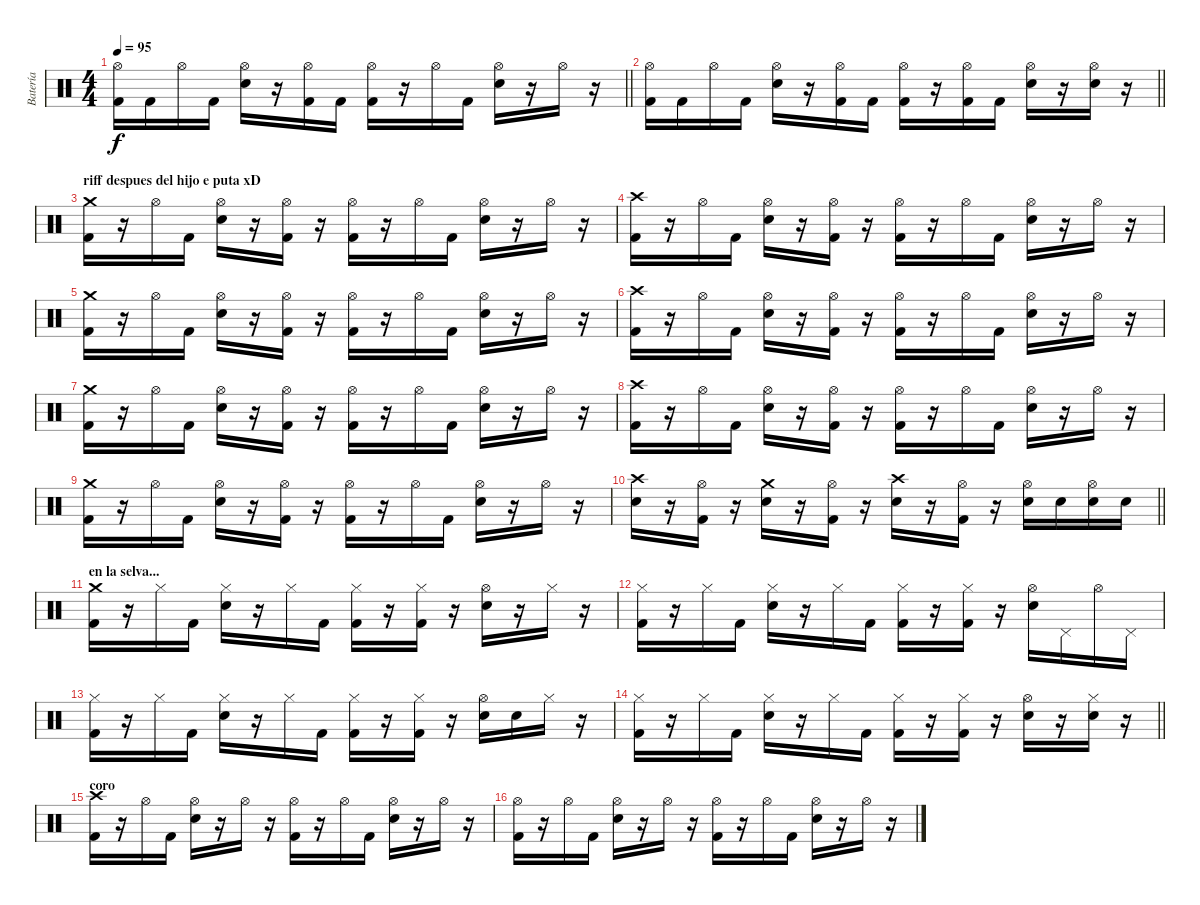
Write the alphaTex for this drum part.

\track ("Batería" "Batería") {instrument percussion}
\staff {score}
\articulation defaults
\ts (4 4)
\tempo 95
\clef neutral
\barLineRight lightlight
\ks c
("Hi-Hat (open)" "Kick (hit) 2").16{dy f} "Kick (hit) 2".16 "Hi-Hat (open)".16 "Kick (hit) 2".16 ("Hi-Hat (open)" "Snare (hit) 2").16 r.16 ("Hi-Hat (open)" "Kick (hit) 2").16 "Kick (hit) 2".16 ("Hi-Hat (open)" "Kick (hit) 2").16 r.16 "Hi-Hat (open)".16 "Kick (hit) 2".16 ("Hi-Hat (open)" "Snare (hit) 2").16 r.16 "Hi-Hat (open)".16 r.16 |
\barLineRight lightlight
("Hi-Hat (open)" "Kick (hit) 2").16 "Kick (hit) 2".16 "Hi-Hat (open)".16 "Kick (hit) 2".16 ("Hi-Hat (open)" "Snare (hit) 2").16 r.16 ("Hi-Hat (open)" "Kick (hit) 2").16 "Kick (hit) 2".16 ("Hi-Hat (open)" "Kick (hit) 2").16 r.16 ("Hi-Hat (open)" "Kick (hit) 2").16 "Kick (hit) 2".16 ("Hi-Hat (open)" "Snare (hit) 2").16 r.16 ("Hi-Hat (open)" "Snare (hit) 2").16 r.16 |
\section ("" "riff despues del hijo e puta xD")
("Crash medium (hit)" "Kick (hit) 2").16 r.16 "Hi-Hat (open)".16 "Kick (hit) 2".16 ("Hi-Hat (open)" "Snare (hit) 2").16 r.16 ("Hi-Hat (open)" "Kick (hit) 2").16 r.16 ("Hi-Hat (open)" "Kick (hit) 2").16 r.16 "Hi-Hat (open)".16 "Kick (hit) 2".16 ("Hi-Hat (open)" "Snare (hit) 2").16 r.16 "Hi-Hat (open)".16 r.16 |
("Crash high (hit)" "Kick (hit) 2").16 r.16 "Hi-Hat (open)".16 "Kick (hit) 2".16 ("Hi-Hat (open)" "Snare (hit) 2").16 r.16 ("Hi-Hat (open)" "Kick (hit) 2").16 r.16 ("Hi-Hat (open)" "Kick (hit) 2").16 r.16 "Hi-Hat (open)".16 "Kick (hit) 2".16 ("Hi-Hat (open)" "Snare (hit) 2").16 r.16 "Hi-Hat (open)".16 r.16 |
("Crash medium (hit)" "Kick (hit) 2").16 r.16 "Hi-Hat (open)".16 "Kick (hit) 2".16 ("Hi-Hat (open)" "Snare (hit) 2").16 r.16 ("Hi-Hat (open)" "Kick (hit) 2").16 r.16 ("Hi-Hat (open)" "Kick (hit) 2").16 r.16 "Hi-Hat (open)".16 "Kick (hit) 2".16 ("Hi-Hat (open)" "Snare (hit) 2").16 r.16 "Hi-Hat (open)".16 r.16 |
("Crash high (hit)" "Kick (hit) 2").16 r.16 "Hi-Hat (open)".16 "Kick (hit) 2".16 ("Hi-Hat (open)" "Snare (hit) 2").16 r.16 ("Hi-Hat (open)" "Kick (hit) 2").16 r.16 ("Hi-Hat (open)" "Kick (hit) 2").16 r.16 "Hi-Hat (open)".16 "Kick (hit) 2".16 ("Hi-Hat (open)" "Snare (hit) 2").16 r.16 "Hi-Hat (open)".16 r.16 |
("Crash medium (hit)" "Kick (hit) 2").16 r.16 "Hi-Hat (open)".16 "Kick (hit) 2".16 ("Hi-Hat (open)" "Snare (hit) 2").16 r.16 ("Hi-Hat (open)" "Kick (hit) 2").16 r.16 ("Hi-Hat (open)" "Kick (hit) 2").16 r.16 "Hi-Hat (open)".16 "Kick (hit) 2".16 ("Hi-Hat (open)" "Snare (hit) 2").16 r.16 "Hi-Hat (open)".16 r.16 |
("Crash high (hit)" "Kick (hit) 2").16 r.16 "Hi-Hat (open)".16 "Kick (hit) 2".16 ("Hi-Hat (open)" "Snare (hit) 2").16 r.16 ("Hi-Hat (open)" "Kick (hit) 2").16 r.16 ("Hi-Hat (open)" "Kick (hit) 2").16 r.16 "Hi-Hat (open)".16 "Kick (hit) 2".16 ("Hi-Hat (open)" "Snare (hit) 2").16 r.16 "Hi-Hat (open)".16 r.16 |
("Crash medium (hit)" "Kick (hit) 2").16 r.16 "Hi-Hat (open)".16 "Kick (hit) 2".16 ("Hi-Hat (open)" "Snare (hit) 2").16 r.16 ("Hi-Hat (open)" "Kick (hit) 2").16 r.16 ("Hi-Hat (open)" "Kick (hit) 2").16 r.16 "Hi-Hat (open)".16 "Kick (hit) 2".16 ("Hi-Hat (open)" "Snare (hit) 2").16 r.16 "Hi-Hat (open)".16 r.16 |
\barLineRight lightlight
("Crash high (hit)" "Snare (hit) 2").16 r.16 ("Hi-Hat (open)" "Kick (hit) 2").16 r.16 ("Crash medium (hit)" "Snare (hit) 2").16 r.16 ("Hi-Hat (open)" "Kick (hit) 2").16 r.16 ("Crash high (hit)" "Snare (hit) 2").16 r.16 ("Hi-Hat (open)" "Kick (hit) 2").16 r.16 ("Hi-Hat (open)" "Snare (hit) 2").16 "Snare (hit) 2".16 ("Hi-Hat (open)" "Snare (hit) 2").16 "Snare (hit) 2".16 |
\section ("" "en la selva...")
("Crash medium (hit)" "Kick (hit) 2").16 r.16 "Hi-Hat (closed)".16 "Kick (hit) 2".16 ("Hi-Hat (closed)" "Snare (hit) 2").16 r.16 "Hi-Hat (closed)".16 "Kick (hit) 2".16 ("Hi-Hat (closed)" "Kick (hit) 2").16 r.16 ("Hi-Hat (closed)" "Kick (hit) 2").16 r.16 ("Hi-Hat (open)" "Snare (hit) 2").16 r.16 "Hi-Hat (closed)".16 r.16 |
("Hi-Hat (closed)" "Kick (hit) 2").16 r.16 "Hi-Hat (closed)".16 "Kick (hit) 2".16 ("Hi-Hat (closed)" "Snare (hit) 2").16 r.16 "Hi-Hat (closed)".16 "Kick (hit) 2".16 ("Hi-Hat (closed)" "Kick (hit) 2").16 r.16 ("Hi-Hat (closed)" "Kick (hit) 2").16 r.16 ("Hi-Hat (open)" "Snare (hit) 2").16 "Pedal Hi-Hat (hit)".16 "Hi-Hat (open)".16 "Pedal Hi-Hat (hit)".16 |
("Hi-Hat (closed)" "Kick (hit) 2").16 r.16 "Hi-Hat (closed)".16 "Kick (hit) 2".16 ("Hi-Hat (closed)" "Snare (hit) 2").16 r.16 "Hi-Hat (closed)".16 "Kick (hit) 2".16 ("Hi-Hat (closed)" "Kick (hit) 2").16 r.16 ("Hi-Hat (closed)" "Kick (hit) 2").16 r.16 ("Hi-Hat (open)" "Snare (hit) 2").16 "Snare (hit) 2".16 "Hi-Hat (closed)".16 r.16 |
\barLineRight lightlight
("Hi-Hat (closed)" "Kick (hit) 2").16 r.16 "Hi-Hat (closed)".16 "Kick (hit) 2".16 ("Hi-Hat (closed)" "Snare (hit) 2").16 r.16 "Hi-Hat (closed)".16 "Kick (hit) 2".16 ("Hi-Hat (closed)" "Kick (hit) 2").16 r.16 ("Hi-Hat (closed)" "Kick (hit) 2").16 r.16 ("Hi-Hat (open)" "Snare (hit) 2").16 r.16 ("Hi-Hat (closed)" "Snare (hit) 2").16 r.16 |
\section ("" "coro")
("Crash high (hit)" "Kick (hit) 2").16 r.16 "Hi-Hat (open)".16 "Kick (hit) 2".16 ("Hi-Hat (open)" "Snare (hit) 2").16 r.16 "Hi-Hat (open)".16 r.16 ("Hi-Hat (open)" "Kick (hit) 2").16 r.16 "Hi-Hat (open)".16 "Kick (hit) 2".16 ("Hi-Hat (open)" "Snare (hit) 2").16 r.16 "Hi-Hat (open)".16 r.16 |
("Hi-Hat (open)" "Kick (hit) 2").16 r.16 "Hi-Hat (open)".16 "Kick (hit) 2".16 ("Hi-Hat (open)" "Snare (hit) 2").16 r.16 "Hi-Hat (open)".16 r.16 ("Hi-Hat (open)" "Kick (hit) 2").16 r.16 "Hi-Hat (open)".16 "Kick (hit) 2".16 ("Hi-Hat (open)" "Snare (hit) 2").16 r.16 "Hi-Hat (open)".16 r.16
